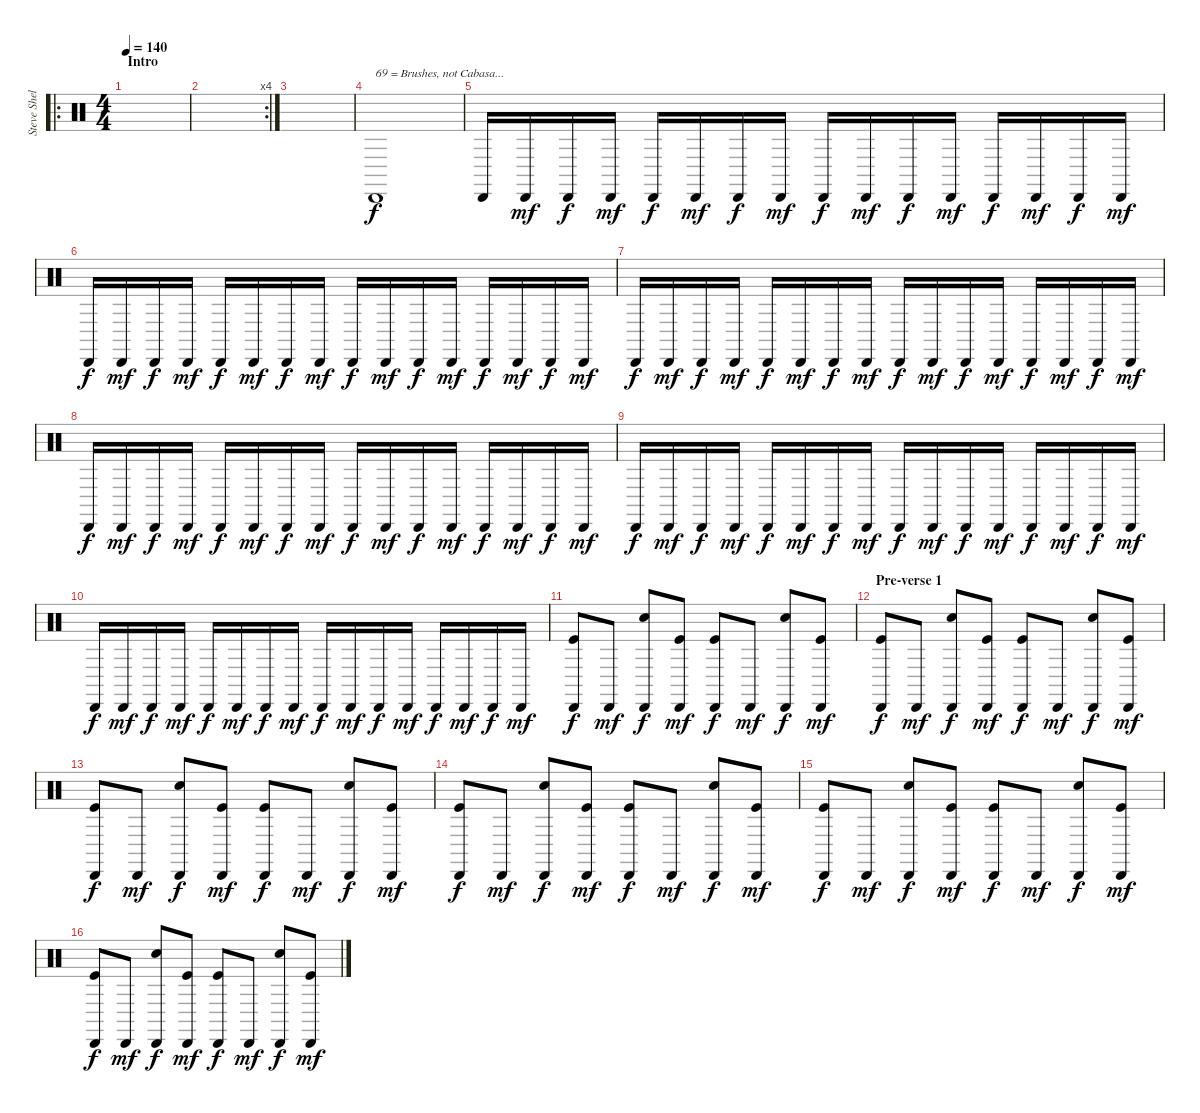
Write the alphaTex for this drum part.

\track ("Steve Shelley" "Steve Shel") {instrument percussion}
\staff {score}
\articulation defaults
\ro
\ts (4 4)
\section ("" "Intro")
\tempo 140
\clef neutral
\ks c
|
\rc 4
|
|
"Cabasa (hit)".1{txt "69 = Brushes, not Cabasa..."} |
"Cabasa (hit)".16 "Cabasa (hit)".16{dy mf} "Cabasa (hit)".16{dy f} "Cabasa (hit)".16{dy mf} "Cabasa (hit)".16{dy f} "Cabasa (hit)".16{dy mf} "Cabasa (hit)".16{dy f} "Cabasa (hit)".16{dy mf} "Cabasa (hit)".16{dy f} "Cabasa (hit)".16{dy mf} "Cabasa (hit)".16{dy f} "Cabasa (hit)".16{dy mf} "Cabasa (hit)".16{dy f} "Cabasa (hit)".16{dy mf} "Cabasa (hit)".16{dy f} "Cabasa (hit)".16{dy mf} |
"Cabasa (hit)".16{dy f} "Cabasa (hit)".16{dy mf} "Cabasa (hit)".16{dy f} "Cabasa (hit)".16{dy mf} "Cabasa (hit)".16{dy f} "Cabasa (hit)".16{dy mf} "Cabasa (hit)".16{dy f} "Cabasa (hit)".16{dy mf} "Cabasa (hit)".16{dy f} "Cabasa (hit)".16{dy mf} "Cabasa (hit)".16{dy f} "Cabasa (hit)".16{dy mf} "Cabasa (hit)".16{dy f} "Cabasa (hit)".16{dy mf} "Cabasa (hit)".16{dy f} "Cabasa (hit)".16{dy mf} |
"Cabasa (hit)".16{dy f} "Cabasa (hit)".16{dy mf} "Cabasa (hit)".16{dy f} "Cabasa (hit)".16{dy mf} "Cabasa (hit)".16{dy f} "Cabasa (hit)".16{dy mf} "Cabasa (hit)".16{dy f} "Cabasa (hit)".16{dy mf} "Cabasa (hit)".16{dy f} "Cabasa (hit)".16{dy mf} "Cabasa (hit)".16{dy f} "Cabasa (hit)".16{dy mf} "Cabasa (hit)".16{dy f} "Cabasa (hit)".16{dy mf} "Cabasa (hit)".16{dy f} "Cabasa (hit)".16{dy mf} |
"Cabasa (hit)".16{dy f} "Cabasa (hit)".16{dy mf} "Cabasa (hit)".16{dy f} "Cabasa (hit)".16{dy mf} "Cabasa (hit)".16{dy f} "Cabasa (hit)".16{dy mf} "Cabasa (hit)".16{dy f} "Cabasa (hit)".16{dy mf} "Cabasa (hit)".16{dy f} "Cabasa (hit)".16{dy mf} "Cabasa (hit)".16{dy f} "Cabasa (hit)".16{dy mf} "Cabasa (hit)".16{dy f} "Cabasa (hit)".16{dy mf} "Cabasa (hit)".16{dy f} "Cabasa (hit)".16{dy mf} |
"Cabasa (hit)".16{dy f} "Cabasa (hit)".16{dy mf} "Cabasa (hit)".16{dy f} "Cabasa (hit)".16{dy mf} "Cabasa (hit)".16{dy f} "Cabasa (hit)".16{dy mf} "Cabasa (hit)".16{dy f} "Cabasa (hit)".16{dy mf} "Cabasa (hit)".16{dy f} "Cabasa (hit)".16{dy mf} "Cabasa (hit)".16{dy f} "Cabasa (hit)".16{dy mf} "Cabasa (hit)".16{dy f} "Cabasa (hit)".16{dy mf} "Cabasa (hit)".16{dy f} "Cabasa (hit)".16{dy mf} |
"Cabasa (hit)".16{dy f} "Cabasa (hit)".16{dy mf} "Cabasa (hit)".16{dy f} "Cabasa (hit)".16{dy mf} "Cabasa (hit)".16{dy f} "Cabasa (hit)".16{dy mf} "Cabasa (hit)".16{dy f} "Cabasa (hit)".16{dy mf} "Cabasa (hit)".16{dy f} "Cabasa (hit)".16{dy mf} "Cabasa (hit)".16{dy f} "Cabasa (hit)".16{dy mf} "Cabasa (hit)".16{dy f} "Cabasa (hit)".16{dy mf} "Cabasa (hit)".16{dy f} "Cabasa (hit)".16{dy mf} |
("Cabasa (hit)" "Kick (hit)").8{dy f} "Cabasa (hit)".8{dy mf} ("Cabasa (hit)" "Electric Snare (hit)").8{dy f} ("Cabasa (hit)" "Kick (hit)").8{dy mf} ("Cabasa (hit)" "Kick (hit)").8{dy f} "Cabasa (hit)".8{dy mf} ("Cabasa (hit)" "Electric Snare (hit)").8{dy f} ("Cabasa (hit)" "Kick (hit)").8{dy mf} |
\section ("" "Pre-verse 1")
("Cabasa (hit)" "Kick (hit)").8{dy f} "Cabasa (hit)".8{dy mf} ("Cabasa (hit)" "Electric Snare (hit)").8{dy f} ("Cabasa (hit)" "Kick (hit)").8{dy mf} ("Cabasa (hit)" "Kick (hit)").8{dy f} "Cabasa (hit)".8{dy mf} ("Cabasa (hit)" "Electric Snare (hit)").8{dy f} ("Cabasa (hit)" "Kick (hit)").8{dy mf} |
("Cabasa (hit)" "Kick (hit)").8{dy f} "Cabasa (hit)".8{dy mf} ("Cabasa (hit)" "Electric Snare (hit)").8{dy f} ("Cabasa (hit)" "Kick (hit)").8{dy mf} ("Cabasa (hit)" "Kick (hit)").8{dy f} "Cabasa (hit)".8{dy mf} ("Cabasa (hit)" "Electric Snare (hit)").8{dy f} ("Cabasa (hit)" "Kick (hit)").8{dy mf} |
("Cabasa (hit)" "Kick (hit)").8{dy f} "Cabasa (hit)".8{dy mf} ("Cabasa (hit)" "Electric Snare (hit)").8{dy f} ("Cabasa (hit)" "Kick (hit)").8{dy mf} ("Cabasa (hit)" "Kick (hit)").8{dy f} "Cabasa (hit)".8{dy mf} ("Cabasa (hit)" "Electric Snare (hit)").8{dy f} ("Cabasa (hit)" "Kick (hit)").8{dy mf} |
("Cabasa (hit)" "Kick (hit)").8{dy f} "Cabasa (hit)".8{dy mf} ("Cabasa (hit)" "Electric Snare (hit)").8{dy f} ("Cabasa (hit)" "Kick (hit)").8{dy mf} ("Cabasa (hit)" "Kick (hit)").8{dy f} "Cabasa (hit)".8{dy mf} ("Cabasa (hit)" "Electric Snare (hit)").8{dy f} ("Cabasa (hit)" "Kick (hit)").8{dy mf} |
("Cabasa (hit)" "Kick (hit)").8{dy f} "Cabasa (hit)".8{dy mf} ("Cabasa (hit)" "Electric Snare (hit)").8{dy f} ("Cabasa (hit)" "Kick (hit)").8{dy mf} ("Cabasa (hit)" "Kick (hit)").8{dy f} "Cabasa (hit)".8{dy mf} ("Cabasa (hit)" "Electric Snare (hit)").8{dy f} ("Cabasa (hit)" "Kick (hit)").8{dy mf}
